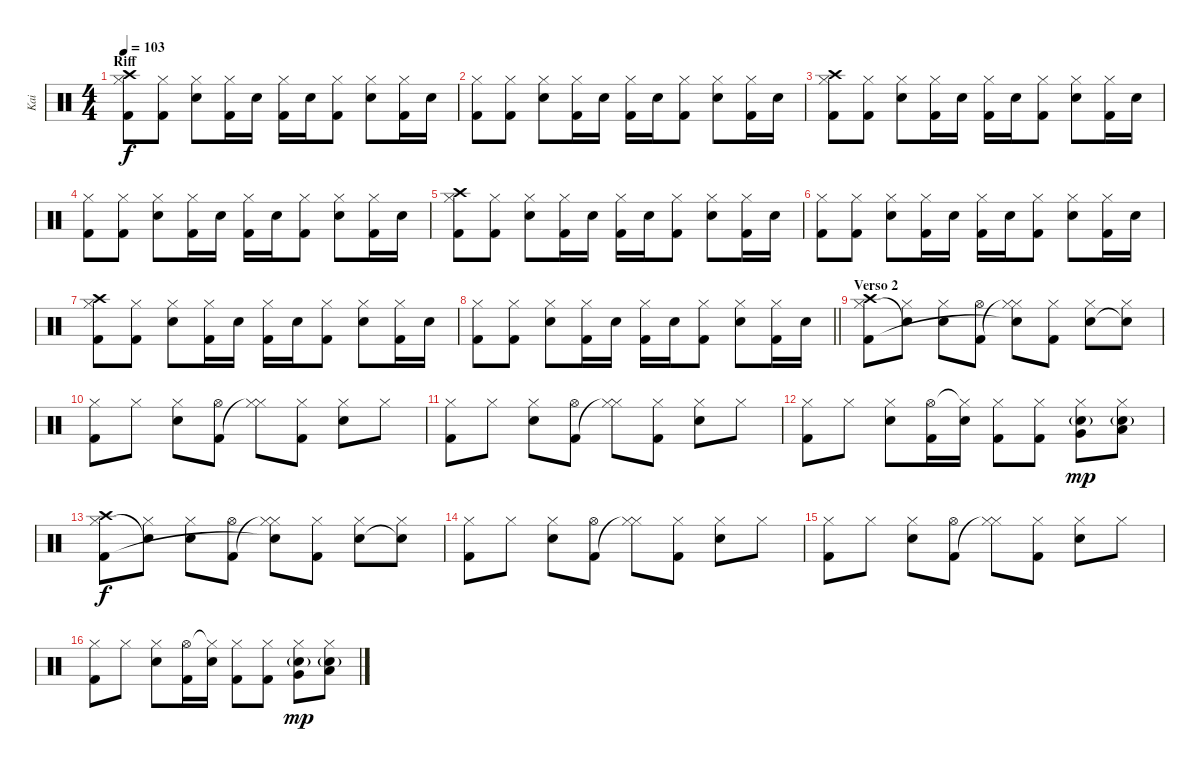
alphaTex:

\track ("Kai" "Kai") {instrument percussion}
\staff {score}
\articulation defaults
\ts (4 4)
\section ("" "Riff")
\tempo 103
\clef neutral
\ks c
("Crash high (hit)" "Hi-Hat (closed)" "Kick (hit) 2").8{dy f} ("Hi-Hat (closed)" "Kick (hit) 2").8 ("Hi-Hat (closed)" "Electric Snare (hit)").8 ("Hi-Hat (closed)" "Kick (hit) 2").16 "Electric Snare (hit)".16 ("Hi-Hat (closed)" "Kick (hit) 2").16 "Electric Snare (hit)".16 ("Hi-Hat (closed)" "Kick (hit) 2").8 ("Hi-Hat (closed)" "Electric Snare (hit)").8 ("Hi-Hat (closed)" "Kick (hit) 2").16 "Electric Snare (hit)".16 |
("Hi-Hat (closed)" "Kick (hit) 2").8 ("Hi-Hat (closed)" "Kick (hit) 2").8 ("Hi-Hat (closed)" "Electric Snare (hit)").8 ("Hi-Hat (closed)" "Kick (hit) 2").16 "Electric Snare (hit)".16 ("Hi-Hat (closed)" "Kick (hit) 2").16 "Electric Snare (hit)".16 ("Hi-Hat (closed)" "Kick (hit) 2").8 ("Hi-Hat (closed)" "Electric Snare (hit)").8 ("Hi-Hat (closed)" "Kick (hit) 2").16 "Electric Snare (hit)".16 |
("Crash high (hit)" "Hi-Hat (closed)" "Kick (hit) 2").8 ("Hi-Hat (closed)" "Kick (hit) 2").8 ("Hi-Hat (closed)" "Electric Snare (hit)").8 ("Hi-Hat (closed)" "Kick (hit) 2").16 "Electric Snare (hit)".16 ("Hi-Hat (closed)" "Kick (hit) 2").16 "Electric Snare (hit)".16 ("Hi-Hat (closed)" "Kick (hit) 2").8 ("Hi-Hat (closed)" "Electric Snare (hit)").8 ("Hi-Hat (closed)" "Kick (hit) 2").16 "Electric Snare (hit)".16 |
("Hi-Hat (closed)" "Kick (hit) 2").8 ("Hi-Hat (closed)" "Kick (hit) 2").8 ("Hi-Hat (closed)" "Electric Snare (hit)").8 ("Hi-Hat (closed)" "Kick (hit) 2").16 "Electric Snare (hit)".16 ("Hi-Hat (closed)" "Kick (hit) 2").16 "Electric Snare (hit)".16 ("Hi-Hat (closed)" "Kick (hit) 2").8 ("Hi-Hat (closed)" "Electric Snare (hit)").8 ("Hi-Hat (closed)" "Kick (hit) 2").16 "Electric Snare (hit)".16 |
("Crash high (hit)" "Hi-Hat (closed)" "Kick (hit) 2").8 ("Hi-Hat (closed)" "Kick (hit) 2").8 ("Hi-Hat (closed)" "Electric Snare (hit)").8 ("Hi-Hat (closed)" "Kick (hit) 2").16 "Electric Snare (hit)".16 ("Hi-Hat (closed)" "Kick (hit) 2").16 "Electric Snare (hit)".16 ("Hi-Hat (closed)" "Kick (hit) 2").8 ("Hi-Hat (closed)" "Electric Snare (hit)").8 ("Hi-Hat (closed)" "Kick (hit) 2").16 "Electric Snare (hit)".16 |
("Hi-Hat (closed)" "Kick (hit) 2").8 ("Hi-Hat (closed)" "Kick (hit) 2").8 ("Hi-Hat (closed)" "Electric Snare (hit)").8 ("Hi-Hat (closed)" "Kick (hit) 2").16 "Electric Snare (hit)".16 ("Hi-Hat (closed)" "Kick (hit) 2").16 "Electric Snare (hit)".16 ("Hi-Hat (closed)" "Kick (hit) 2").8 ("Hi-Hat (closed)" "Electric Snare (hit)").8 ("Hi-Hat (closed)" "Kick (hit) 2").16 "Electric Snare (hit)".16 |
("Crash high (hit)" "Hi-Hat (closed)" "Kick (hit) 2").8 ("Hi-Hat (closed)" "Kick (hit) 2").8 ("Hi-Hat (closed)" "Electric Snare (hit)").8 ("Hi-Hat (closed)" "Kick (hit) 2").16 "Electric Snare (hit)".16 ("Hi-Hat (closed)" "Kick (hit) 2").16 "Electric Snare (hit)".16 ("Hi-Hat (closed)" "Kick (hit) 2").8 ("Hi-Hat (closed)" "Electric Snare (hit)").8 ("Hi-Hat (closed)" "Kick (hit) 2").16 "Electric Snare (hit)".16 |
\barLineRight lightlight
("Hi-Hat (closed)" "Kick (hit) 2").8 ("Hi-Hat (closed)" "Kick (hit) 2").8 ("Hi-Hat (closed)" "Electric Snare (hit)").8 ("Hi-Hat (closed)" "Kick (hit) 2").16 "Electric Snare (hit)".16 ("Hi-Hat (closed)" "Kick (hit) 2").16 "Electric Snare (hit)".16 ("Hi-Hat (closed)" "Kick (hit) 2").8 ("Hi-Hat (closed)" "Electric Snare (hit)").8 ("Hi-Hat (closed)" "Kick (hit) 2").16 "Electric Snare (hit)".16 |
\section ("" "Verso 2")
("Crash high (hit)" "Hi-Hat (closed)" "Kick (hit) 2").8 ("Hi-Hat (closed)" "Snare (hit)"{t}).8 ("Hi-Hat (closed)" "Electric Snare (hit)").8 ("Hi-Hat (open)" "Kick (hit) 2").8 ("Hi-Hat (closed)" "Hi-Hat (closed)"{t} "Snare (hit)"{t}).8 ("Hi-Hat (closed)" "Kick (hit) 2").8 ("Hi-Hat (closed)" "Electric Snare (hit)").8 ("Hi-Hat (closed)" "Snare (hit)"{t}).8 |
("Hi-Hat (closed)" "Kick (hit) 2").8 "Hi-Hat (closed)".8 ("Hi-Hat (closed)" "Electric Snare (hit)").8 ("Hi-Hat (open)" "Kick (hit) 2").8 ("Hi-Hat (closed)" "Hi-Hat (closed)"{t}).8 ("Hi-Hat (closed)" "Kick (hit) 2").8 ("Hi-Hat (closed)" "Electric Snare (hit)").8 "Hi-Hat (closed)".8 |
("Hi-Hat (closed)" "Kick (hit) 2").8 "Hi-Hat (closed)".8 ("Hi-Hat (closed)" "Electric Snare (hit)").8 ("Hi-Hat (open)" "Kick (hit) 2").8 ("Hi-Hat (closed)" "Hi-Hat (closed)"{t}).8 ("Hi-Hat (closed)" "Kick (hit) 2").8 ("Hi-Hat (closed)" "Electric Snare (hit)").8 "Hi-Hat (closed)".8 |
("Hi-Hat (closed)" "Kick (hit) 2").8 "Hi-Hat (closed)".8 ("Hi-Hat (closed)" "Electric Snare (hit)").8 ("Hi-Hat (open)" "Kick (hit) 2").16 ("Hi-Hat (closed)"{t} "Electric Snare (hit)").16 ("Hi-Hat (closed)" "Kick (hit) 2").8 ("Hi-Hat (closed)" "Kick (hit) 2").8 ("Electric Snare (hit)"{g} "Hi-Hat (closed)" "Very Low Tom (hit)").8{dy mp} ("Electric Snare (hit)"{g} "Hi-Hat (closed)" "Low Floor Tom (hit)").8 |
("Crash high (hit)" "Hi-Hat (closed)" "Kick (hit) 2").8{dy f} ("Hi-Hat (closed)" "Snare (hit)"{t}).8 ("Hi-Hat (closed)" "Electric Snare (hit)").8 ("Hi-Hat (open)" "Kick (hit) 2").8 ("Hi-Hat (closed)" "Hi-Hat (closed)"{t} "Snare (hit)"{t}).8 ("Hi-Hat (closed)" "Kick (hit) 2").8 ("Hi-Hat (closed)" "Electric Snare (hit)").8 ("Hi-Hat (closed)" "Snare (hit)"{t}).8 |
("Hi-Hat (closed)" "Kick (hit) 2").8 "Hi-Hat (closed)".8 ("Hi-Hat (closed)" "Electric Snare (hit)").8 ("Hi-Hat (open)" "Kick (hit) 2").8 ("Hi-Hat (closed)" "Hi-Hat (closed)"{t}).8 ("Hi-Hat (closed)" "Kick (hit) 2").8 ("Hi-Hat (closed)" "Electric Snare (hit)").8 "Hi-Hat (closed)".8 |
("Hi-Hat (closed)" "Kick (hit) 2").8 "Hi-Hat (closed)".8 ("Hi-Hat (closed)" "Electric Snare (hit)").8 ("Hi-Hat (open)" "Kick (hit) 2").8 ("Hi-Hat (closed)" "Hi-Hat (closed)"{t}).8 ("Hi-Hat (closed)" "Kick (hit) 2").8 ("Hi-Hat (closed)" "Electric Snare (hit)").8 "Hi-Hat (closed)".8 |
("Hi-Hat (closed)" "Kick (hit) 2").8 "Hi-Hat (closed)".8 ("Hi-Hat (closed)" "Electric Snare (hit)").8 ("Hi-Hat (open)" "Kick (hit) 2").16 ("Hi-Hat (closed)"{t} "Electric Snare (hit)").16 ("Hi-Hat (closed)" "Kick (hit) 2").8 ("Hi-Hat (closed)" "Kick (hit) 2").8 ("Electric Snare (hit)"{g} "Hi-Hat (closed)" "Very Low Tom (hit)").8{dy mp} ("Electric Snare (hit)"{g} "Hi-Hat (closed)" "Low Floor Tom (hit)").8
